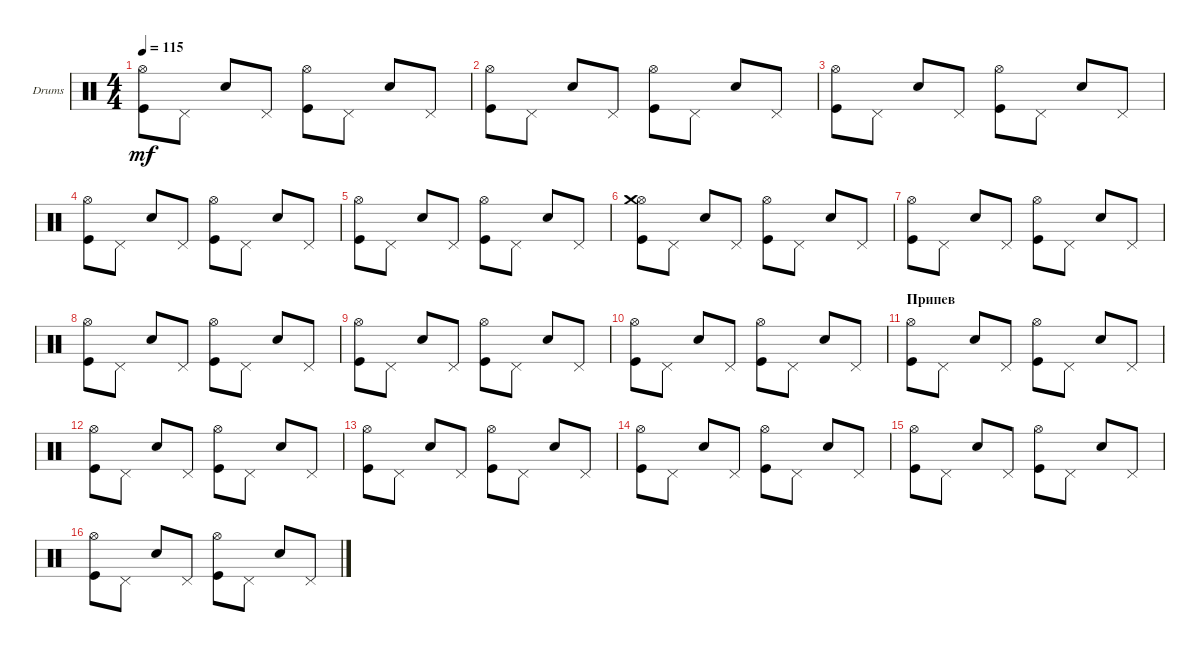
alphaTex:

\defaultSystemsLayout 4
\bracketExtendMode groupsimilarinstruments
\firstSystemTrackNameOrientation horizontal
\otherSystemsTrackNameOrientation horizontal
\track ("Е.Кулаков Ударные" "Drums") {instrument percussion}
\staff {score}
\articulation defaults
\ts (4 4)
\tempo 115
\clef neutral
\scale
0.333333
\ks c
("Kick (hit)" "Hi-Hat (open)").8{dy mf} "Pedal Hi-Hat (hit)".8 "Snare (hit) 2".8 "Pedal Hi-Hat (hit)".8 ("Kick (hit)" "Hi-Hat (open)").8 "Pedal Hi-Hat (hit)".8 "Snare (hit) 2".8 "Pedal Hi-Hat (hit)".8 |
\scale
0.333333 ("Kick (hit)" "Hi-Hat (open)").8 "Pedal Hi-Hat (hit)".8 "Snare (hit) 2".8 "Pedal Hi-Hat (hit)".8 ("Kick (hit)" "Hi-Hat (open)").8 "Pedal Hi-Hat (hit)".8 "Snare (hit) 2".8 "Pedal Hi-Hat (hit)".8 |
\scale
0.333333 ("Kick (hit)" "Hi-Hat (open)").8 "Pedal Hi-Hat (hit)".8 "Snare (hit) 2".8 "Pedal Hi-Hat (hit)".8 ("Kick (hit)" "Hi-Hat (open)").8 "Pedal Hi-Hat (hit)".8 "Snare (hit) 2".8 "Pedal Hi-Hat (hit)".8 |
\scale
0.333333 ("Kick (hit)" "Hi-Hat (open)").8 "Pedal Hi-Hat (hit)".8 "Snare (hit) 2".8 "Pedal Hi-Hat (hit)".8 ("Kick (hit)" "Hi-Hat (open)").8 "Pedal Hi-Hat (hit)".8 "Snare (hit) 2".8 "Pedal Hi-Hat (hit)".8 |
\scale
0.333333 ("Kick (hit)" "Hi-Hat (open)").8 "Pedal Hi-Hat (hit)".8 "Snare (hit) 2".8 "Pedal Hi-Hat (hit)".8 ("Kick (hit)" "Hi-Hat (open)").8 "Pedal Hi-Hat (hit)".8 "Snare (hit) 2".8 "Pedal Hi-Hat (hit)".8 |
\scale
0.333333 ("Kick (hit)" "Hi-Hat (open)" "Crash medium (hit)").8 "Pedal Hi-Hat (hit)".8 "Snare (hit) 2".8 "Pedal Hi-Hat (hit)".8 ("Kick (hit)" "Hi-Hat (open)").8 "Pedal Hi-Hat (hit)".8 "Snare (hit) 2".8 "Pedal Hi-Hat (hit)".8 |
\scale
0.333333 ("Kick (hit)" "Hi-Hat (open)").8 "Pedal Hi-Hat (hit)".8 "Snare (hit) 2".8 "Pedal Hi-Hat (hit)".8 ("Kick (hit)" "Hi-Hat (open)").8 "Pedal Hi-Hat (hit)".8 "Snare (hit) 2".8 "Pedal Hi-Hat (hit)".8 |
("Kick (hit)" "Hi-Hat (open)").8 "Pedal Hi-Hat (hit)".8 "Snare (hit) 2".8 "Pedal Hi-Hat (hit)".8 ("Kick (hit)" "Hi-Hat (open)").8 "Pedal Hi-Hat (hit)".8 "Snare (hit) 2".8 "Pedal Hi-Hat (hit)".8 |
\scale
0.333333 ("Kick (hit)" "Hi-Hat (open)").8 "Pedal Hi-Hat (hit)".8 "Snare (hit) 2".8 "Pedal Hi-Hat (hit)".8 ("Kick (hit)" "Hi-Hat (open)").8 "Pedal Hi-Hat (hit)".8 "Snare (hit) 2".8 "Pedal Hi-Hat (hit)".8 |
\scale
0.333333 ("Kick (hit)" "Hi-Hat (open)").8 "Pedal Hi-Hat (hit)".8 "Snare (hit) 2".8 "Pedal Hi-Hat (hit)".8 ("Kick (hit)" "Hi-Hat (open)").8 "Pedal Hi-Hat (hit)".8 "Snare (hit) 2".8 "Pedal Hi-Hat (hit)".8 |
\section ("" "Припев")
\scale
0.333333 ("Kick (hit)" "Hi-Hat (open)").8 "Pedal Hi-Hat (hit)".8 "Snare (hit) 2".8 "Pedal Hi-Hat (hit)".8 ("Kick (hit)" "Hi-Hat (open)").8 "Pedal Hi-Hat (hit)".8 "Snare (hit) 2".8 "Pedal Hi-Hat (hit)".8 |
\scale
0.333333 ("Kick (hit)" "Hi-Hat (open)").8 "Pedal Hi-Hat (hit)".8 "Snare (hit) 2".8 "Pedal Hi-Hat (hit)".8 ("Kick (hit)" "Hi-Hat (open)").8 "Pedal Hi-Hat (hit)".8 "Snare (hit) 2".8 "Pedal Hi-Hat (hit)".8 |
\scale
0.333333 ("Kick (hit)" "Hi-Hat (open)").8 "Pedal Hi-Hat (hit)".8 "Snare (hit) 2".8 "Pedal Hi-Hat (hit)".8 ("Kick (hit)" "Hi-Hat (open)").8 "Pedal Hi-Hat (hit)".8 "Snare (hit) 2".8 "Pedal Hi-Hat (hit)".8 |
\scale
0.333333 ("Kick (hit)" "Hi-Hat (open)").8 "Pedal Hi-Hat (hit)".8 "Snare (hit) 2".8 "Pedal Hi-Hat (hit)".8 ("Kick (hit)" "Hi-Hat (open)").8 "Pedal Hi-Hat (hit)".8 "Snare (hit) 2".8 "Pedal Hi-Hat (hit)".8 |
\scale
0.333333 ("Kick (hit)" "Hi-Hat (open)").8 "Pedal Hi-Hat (hit)".8 "Snare (hit) 2".8 "Pedal Hi-Hat (hit)".8 ("Kick (hit)" "Hi-Hat (open)").8 "Pedal Hi-Hat (hit)".8 "Snare (hit) 2".8 "Pedal Hi-Hat (hit)".8 |
\scale
0.333333 ("Kick (hit)" "Hi-Hat (open)").8 "Pedal Hi-Hat (hit)".8 "Snare (hit) 2".8 "Pedal Hi-Hat (hit)".8 ("Kick (hit)" "Hi-Hat (open)").8 "Pedal Hi-Hat (hit)".8 "Snare (hit) 2".8 "Pedal Hi-Hat (hit)".8
